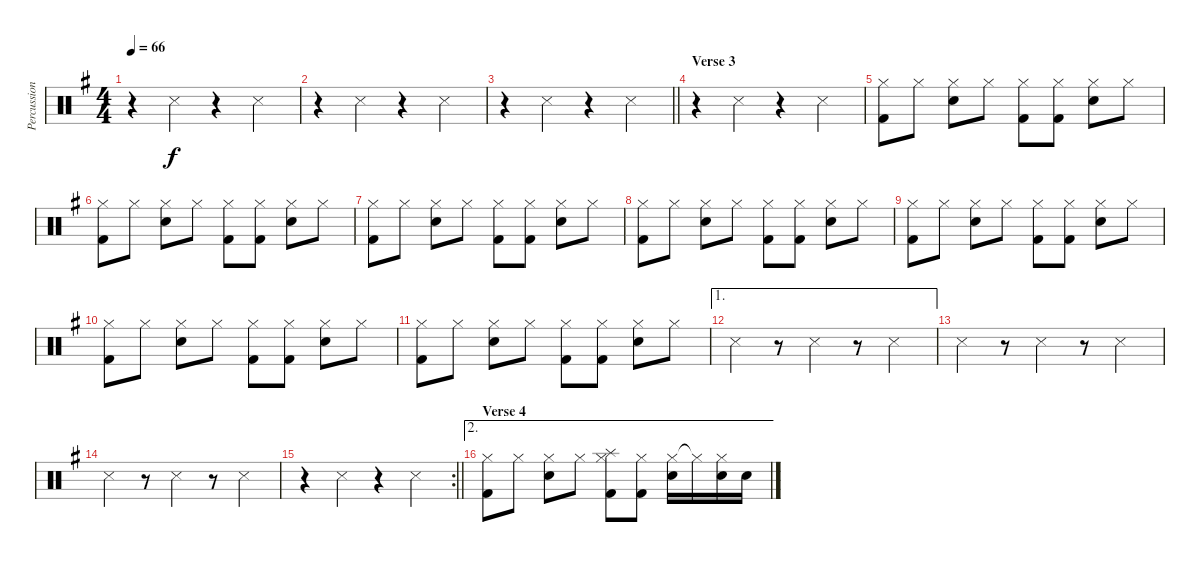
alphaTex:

\track ("Percussion" "Percussion") {instrument percussion}
\staff {score}
\articulation defaults
\ts (4 4)
\tempo 66
\clef neutral
\ks g
r.4{dy f} "Snare (side stick) 3".4 r.4 "Snare (side stick) 3".4 |
r.4 "Snare (side stick) 3".4 r.4 "Snare (side stick) 3".4 |
\barLineRight lightlight
r.4 "Snare (side stick) 3".4 r.4 "Snare (side stick) 3".4 |
\section ("" "Verse 3")
r.4 "Snare (side stick) 3".4 r.4 "Snare (side stick) 3".4 |
("Hi-Hat (closed)" "Kick (hit) 2").8 "Hi-Hat (closed)".8 ("Hi-Hat (closed)" "Snare (hit) 2").8 "Hi-Hat (closed)".8 ("Hi-Hat (closed)" "Kick (hit) 2").8 ("Hi-Hat (closed)" "Kick (hit) 2").8 ("Hi-Hat (closed)" "Snare (hit) 2").8 "Hi-Hat (closed)".8 |
("Hi-Hat (closed)" "Kick (hit) 2").8 "Hi-Hat (closed)".8 ("Hi-Hat (closed)" "Snare (hit) 2").8 "Hi-Hat (closed)".8 ("Hi-Hat (closed)" "Kick (hit) 2").8 ("Hi-Hat (closed)" "Kick (hit) 2").8 ("Hi-Hat (closed)" "Snare (hit) 2").8 "Hi-Hat (closed)".8 |
("Hi-Hat (closed)" "Kick (hit) 2").8 "Hi-Hat (closed)".8 ("Hi-Hat (closed)" "Snare (hit) 2").8 "Hi-Hat (closed)".8 ("Hi-Hat (closed)" "Kick (hit) 2").8 ("Hi-Hat (closed)" "Kick (hit) 2").8 ("Hi-Hat (closed)" "Snare (hit) 2").8 "Hi-Hat (closed)".8 |
("Hi-Hat (closed)" "Kick (hit) 2").8 "Hi-Hat (closed)".8 ("Hi-Hat (closed)" "Snare (hit) 2").8 "Hi-Hat (closed)".8 ("Hi-Hat (closed)" "Kick (hit) 2").8 ("Hi-Hat (closed)" "Kick (hit) 2").8 ("Hi-Hat (closed)" "Snare (hit) 2").8 "Hi-Hat (closed)".8 |
("Hi-Hat (closed)" "Kick (hit) 2").8 "Hi-Hat (closed)".8 ("Hi-Hat (closed)" "Snare (hit) 2").8 "Hi-Hat (closed)".8 ("Hi-Hat (closed)" "Kick (hit) 2").8 ("Hi-Hat (closed)" "Kick (hit) 2").8 ("Hi-Hat (closed)" "Snare (hit) 2").8 "Hi-Hat (closed)".8 |
("Hi-Hat (closed)" "Kick (hit) 2").8 "Hi-Hat (closed)".8 ("Hi-Hat (closed)" "Snare (hit) 2").8 "Hi-Hat (closed)".8 ("Hi-Hat (closed)" "Kick (hit) 2").8 ("Hi-Hat (closed)" "Kick (hit) 2").8 ("Hi-Hat (closed)" "Snare (hit) 2").8 "Hi-Hat (closed)".8 |
("Hi-Hat (closed)" "Kick (hit) 2").8 "Hi-Hat (closed)".8 ("Hi-Hat (closed)" "Snare (hit) 2").8 "Hi-Hat (closed)".8 ("Hi-Hat (closed)" "Kick (hit) 2").8 ("Hi-Hat (closed)" "Kick (hit) 2").8 ("Hi-Hat (closed)" "Snare (hit) 2").8 "Hi-Hat (closed)".8 |
\ae 1 "Snare (side stick) 3".4
r.8 "Snare (side stick) 3".4 r.8 "Snare (side stick) 3".4 |
"Snare (side stick) 3".4 r.8 "Snare (side stick) 3".4 r.8 "Snare (side stick) 3".4 |
"Snare (side stick) 3".4 r.8 "Snare (side stick) 3".4 r.8 "Snare (side stick) 3".4 |
\rc 2
\barLineRight lightlight
r.4 "Snare (side stick) 3".4 r.4 "Snare (side stick) 3".4 |
\ae 2
\section ("" "Verse 4")
("Hi-Hat (closed)" "Kick (hit) 2").8 "Hi-Hat (closed)".8 ("Hi-Hat (closed)" "Snare (hit) 2").8 "Hi-Hat (closed)".8 ("Hi-Hat (closed)" "Splash (hit)" "Kick (hit) 2").8 ("Hi-Hat (closed)" "Kick (hit) 2").8 ("Hi-Hat (closed)" "Snare (hit) 2").16 "Hi-Hat (closed)"{t}.16 ("Hi-Hat (closed)" "Snare (hit) 2").16 "Snare (hit) 2".16
